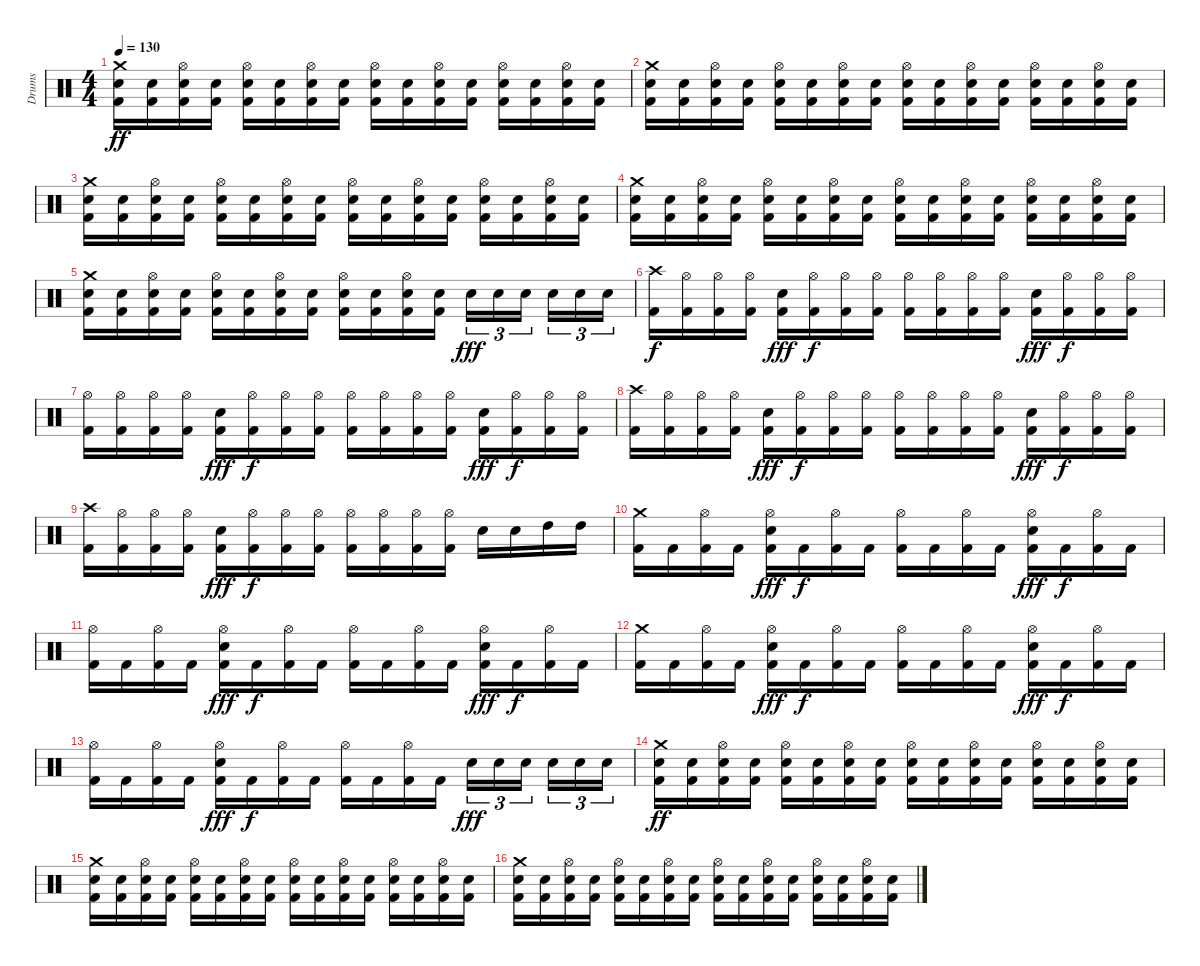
\track ("Drums" "Drums") {instrument percussion}
\staff {score}
\articulation defaults
\ts (4 4)
\tempo 130
\clef neutral
\ks c
("Kick (hit) 2" "Snare (hit) 2" "Crash medium (hit)").16{dy ff} ("Kick (hit) 2" "Snare (hit) 2").16 ("Kick (hit) 2" "Snare (hit) 2" "Hi-Hat (open)").16 ("Kick (hit) 2" "Snare (hit) 2").16 ("Kick (hit) 2" "Snare (hit) 2" "Hi-Hat (open)").16 ("Kick (hit) 2" "Snare (hit) 2").16 ("Kick (hit) 2" "Snare (hit) 2" "Hi-Hat (open)").16 ("Kick (hit) 2" "Snare (hit) 2").16 ("Kick (hit) 2" "Snare (hit) 2" "Hi-Hat (open)").16 ("Kick (hit) 2" "Snare (hit) 2").16 ("Kick (hit) 2" "Snare (hit) 2" "Hi-Hat (open)").16 ("Kick (hit) 2" "Snare (hit) 2").16 ("Kick (hit) 2" "Snare (hit) 2" "Hi-Hat (open)").16 ("Kick (hit) 2" "Snare (hit) 2").16 ("Kick (hit) 2" "Snare (hit) 2" "Hi-Hat (open)").16 ("Kick (hit) 2" "Snare (hit) 2").16 |
("Kick (hit) 2" "Snare (hit) 2" "Crash medium (hit)").16 ("Kick (hit) 2" "Snare (hit) 2").16 ("Kick (hit) 2" "Snare (hit) 2" "Hi-Hat (open)").16 ("Kick (hit) 2" "Snare (hit) 2").16 ("Kick (hit) 2" "Snare (hit) 2" "Hi-Hat (open)").16 ("Kick (hit) 2" "Snare (hit) 2").16 ("Kick (hit) 2" "Snare (hit) 2" "Hi-Hat (open)").16 ("Kick (hit) 2" "Snare (hit) 2").16 ("Kick (hit) 2" "Snare (hit) 2" "Hi-Hat (open)").16 ("Kick (hit) 2" "Snare (hit) 2").16 ("Kick (hit) 2" "Snare (hit) 2" "Hi-Hat (open)").16 ("Kick (hit) 2" "Snare (hit) 2").16 ("Kick (hit) 2" "Snare (hit) 2" "Hi-Hat (open)").16 ("Kick (hit) 2" "Snare (hit) 2").16 ("Kick (hit) 2" "Snare (hit) 2" "Hi-Hat (open)").16 ("Kick (hit) 2" "Snare (hit) 2").16 |
("Kick (hit) 2" "Snare (hit) 2" "Crash medium (hit)").16 ("Kick (hit) 2" "Snare (hit) 2").16 ("Kick (hit) 2" "Snare (hit) 2" "Hi-Hat (open)").16 ("Kick (hit) 2" "Snare (hit) 2").16 ("Kick (hit) 2" "Snare (hit) 2" "Hi-Hat (open)").16 ("Kick (hit) 2" "Snare (hit) 2").16 ("Kick (hit) 2" "Snare (hit) 2" "Hi-Hat (open)").16 ("Kick (hit) 2" "Snare (hit) 2").16 ("Kick (hit) 2" "Snare (hit) 2" "Hi-Hat (open)").16 ("Kick (hit) 2" "Snare (hit) 2").16 ("Kick (hit) 2" "Snare (hit) 2" "Hi-Hat (open)").16 ("Kick (hit) 2" "Snare (hit) 2").16 ("Kick (hit) 2" "Snare (hit) 2" "Hi-Hat (open)").16 ("Kick (hit) 2" "Snare (hit) 2").16 ("Kick (hit) 2" "Snare (hit) 2" "Hi-Hat (open)").16 ("Kick (hit) 2" "Snare (hit) 2").16 |
("Kick (hit) 2" "Snare (hit) 2" "Crash medium (hit)").16 ("Kick (hit) 2" "Snare (hit) 2").16 ("Kick (hit) 2" "Snare (hit) 2" "Hi-Hat (open)").16 ("Kick (hit) 2" "Snare (hit) 2").16 ("Kick (hit) 2" "Snare (hit) 2" "Hi-Hat (open)").16 ("Kick (hit) 2" "Snare (hit) 2").16 ("Kick (hit) 2" "Snare (hit) 2" "Hi-Hat (open)").16 ("Kick (hit) 2" "Snare (hit) 2").16 ("Kick (hit) 2" "Snare (hit) 2" "Hi-Hat (open)").16 ("Kick (hit) 2" "Snare (hit) 2").16 ("Kick (hit) 2" "Snare (hit) 2" "Hi-Hat (open)").16 ("Kick (hit) 2" "Snare (hit) 2").16 ("Kick (hit) 2" "Snare (hit) 2" "Hi-Hat (open)").16 ("Kick (hit) 2" "Snare (hit) 2").16 ("Kick (hit) 2" "Snare (hit) 2" "Hi-Hat (open)").16 ("Kick (hit) 2" "Snare (hit) 2").16 |
("Kick (hit) 2" "Snare (hit) 2" "Crash medium (hit)").16 ("Kick (hit) 2" "Snare (hit) 2").16 ("Kick (hit) 2" "Snare (hit) 2" "Hi-Hat (open)").16 ("Kick (hit) 2" "Snare (hit) 2").16 ("Kick (hit) 2" "Snare (hit) 2" "Hi-Hat (open)").16 ("Kick (hit) 2" "Snare (hit) 2").16 ("Kick (hit) 2" "Snare (hit) 2" "Hi-Hat (open)").16 ("Kick (hit) 2" "Snare (hit) 2").16 ("Kick (hit) 2" "Snare (hit) 2" "Hi-Hat (open)").16 ("Kick (hit) 2" "Snare (hit) 2").16 ("Kick (hit) 2" "Snare (hit) 2" "Hi-Hat (open)").16 ("Kick (hit) 2" "Snare (hit) 2").16 "Electric Snare (hit)".16{tu (3 2) dy fff} "Electric Snare (hit)".16{tu (3 2)} "Electric Snare (hit)".16{tu (3 2) beam splitsecondary} "Electric Snare (hit)".16{tu (3 2)} "Electric Snare (hit)".16{tu (3 2)} "Electric Snare (hit)".16{tu (3 2)} |
("Kick (hit) 2" "Crash high (hit)").16{dy f} ("Kick (hit) 2" "Hi-Hat (open)").16 ("Kick (hit) 2" "Hi-Hat (open)").16 ("Kick (hit) 2" "Hi-Hat (open)").16 ("Kick (hit) 2" "Snare (hit) 2").16{dy fff} ("Kick (hit) 2" "Hi-Hat (open)").16{dy f} ("Kick (hit) 2" "Hi-Hat (open)").16 ("Kick (hit) 2" "Hi-Hat (open)").16 ("Kick (hit) 2" "Hi-Hat (open)").16 ("Kick (hit) 2" "Hi-Hat (open)").16 ("Kick (hit) 2" "Hi-Hat (open)").16 ("Kick (hit) 2" "Hi-Hat (open)").16 ("Kick (hit) 2" "Snare (hit) 2").16{dy fff} ("Kick (hit) 2" "Hi-Hat (open)").16{dy f} ("Kick (hit) 2" "Hi-Hat (open)").16 ("Kick (hit) 2" "Hi-Hat (open)").16 |
("Kick (hit) 2" "Hi-Hat (open)").16 ("Kick (hit) 2" "Hi-Hat (open)").16 ("Kick (hit) 2" "Hi-Hat (open)").16 ("Kick (hit) 2" "Hi-Hat (open)").16 ("Kick (hit) 2" "Snare (hit) 2").16{dy fff} ("Kick (hit) 2" "Hi-Hat (open)").16{dy f} ("Kick (hit) 2" "Hi-Hat (open)").16 ("Kick (hit) 2" "Hi-Hat (open)").16 ("Kick (hit) 2" "Hi-Hat (open)").16 ("Kick (hit) 2" "Hi-Hat (open)").16 ("Kick (hit) 2" "Hi-Hat (open)").16 ("Kick (hit) 2" "Hi-Hat (open)").16 ("Kick (hit) 2" "Snare (hit) 2").16{dy fff} ("Kick (hit) 2" "Hi-Hat (open)").16{dy f} ("Kick (hit) 2" "Hi-Hat (open)").16 ("Kick (hit) 2" "Hi-Hat (open)").16 |
("Kick (hit) 2" "Crash high (hit)").16 ("Kick (hit) 2" "Hi-Hat (open)").16 ("Kick (hit) 2" "Hi-Hat (open)").16 ("Kick (hit) 2" "Hi-Hat (open)").16 ("Kick (hit) 2" "Snare (hit) 2").16{dy fff} ("Kick (hit) 2" "Hi-Hat (open)").16{dy f} ("Kick (hit) 2" "Hi-Hat (open)").16 ("Kick (hit) 2" "Hi-Hat (open)").16 ("Kick (hit) 2" "Hi-Hat (open)").16 ("Kick (hit) 2" "Hi-Hat (open)").16 ("Kick (hit) 2" "Hi-Hat (open)").16 ("Kick (hit) 2" "Hi-Hat (open)").16 ("Kick (hit) 2" "Snare (hit) 2").16{dy fff} ("Kick (hit) 2" "Hi-Hat (open)").16{dy f} ("Kick (hit) 2" "Hi-Hat (open)").16 ("Kick (hit) 2" "Hi-Hat (open)").16 |
("Kick (hit) 2" "Crash high (hit)").16 ("Kick (hit) 2" "Hi-Hat (open)").16 ("Kick (hit) 2" "Hi-Hat (open)").16 ("Kick (hit) 2" "Hi-Hat (open)").16 ("Kick (hit) 2" "Snare (hit) 2").16{dy fff} ("Kick (hit) 2" "Hi-Hat (open)").16{dy f} ("Kick (hit) 2" "Hi-Hat (open)").16 ("Kick (hit) 2" "Hi-Hat (open)").16 ("Kick (hit) 2" "Hi-Hat (open)").16 ("Kick (hit) 2" "Hi-Hat (open)").16 ("Kick (hit) 2" "Hi-Hat (open)").16 ("Kick (hit) 2" "Hi-Hat (open)").16 "Snare (hit) 2".16 "Snare (hit) 2".16 "High Tom (hit)".16 "High Tom (hit)".16 |
("Kick (hit) 2" "Crash medium (hit)").16 "Kick (hit) 2".16 ("Kick (hit) 2" "Hi-Hat (open)").16 "Kick (hit) 2".16 ("Kick (hit) 2" "Hi-Hat (open)" "Snare (hit) 2").16{dy fff} "Kick (hit) 2".16{dy f} ("Kick (hit) 2" "Hi-Hat (open)").16 "Kick (hit) 2".16 ("Kick (hit) 2" "Hi-Hat (open)").16 "Kick (hit) 2".16 ("Kick (hit) 2" "Hi-Hat (open)").16 "Kick (hit) 2".16 ("Kick (hit) 2" "Hi-Hat (open)" "Snare (hit) 2").16{dy fff} "Kick (hit) 2".16{dy f} ("Kick (hit) 2" "Hi-Hat (open)").16 "Kick (hit) 2".16 |
("Kick (hit) 2" "Hi-Hat (open)").16 "Kick (hit) 2".16 ("Kick (hit) 2" "Hi-Hat (open)").16 "Kick (hit) 2".16 ("Kick (hit) 2" "Hi-Hat (open)" "Snare (hit) 2").16{dy fff} "Kick (hit) 2".16{dy f} ("Kick (hit) 2" "Hi-Hat (open)").16 "Kick (hit) 2".16 ("Kick (hit) 2" "Hi-Hat (open)").16 "Kick (hit) 2".16 ("Kick (hit) 2" "Hi-Hat (open)").16 "Kick (hit) 2".16 ("Kick (hit) 2" "Hi-Hat (open)" "Snare (hit) 2").16{dy fff} "Kick (hit) 2".16{dy f} ("Kick (hit) 2" "Hi-Hat (open)").16 "Kick (hit) 2".16 |
("Kick (hit) 2" "Crash medium (hit)").16 "Kick (hit) 2".16 ("Kick (hit) 2" "Hi-Hat (open)").16 "Kick (hit) 2".16 ("Kick (hit) 2" "Hi-Hat (open)" "Snare (hit) 2").16{dy fff} "Kick (hit) 2".16{dy f} ("Kick (hit) 2" "Hi-Hat (open)").16 "Kick (hit) 2".16 ("Kick (hit) 2" "Hi-Hat (open)").16 "Kick (hit) 2".16 ("Kick (hit) 2" "Hi-Hat (open)").16 "Kick (hit) 2".16 ("Kick (hit) 2" "Hi-Hat (open)" "Snare (hit) 2").16{dy fff} "Kick (hit) 2".16{dy f} ("Kick (hit) 2" "Hi-Hat (open)").16 "Kick (hit) 2".16 |
("Kick (hit) 2" "Hi-Hat (open)").16 "Kick (hit) 2".16 ("Kick (hit) 2" "Hi-Hat (open)").16 "Kick (hit) 2".16 ("Kick (hit) 2" "Hi-Hat (open)" "Snare (hit) 2").16{dy fff} "Kick (hit) 2".16{dy f} ("Kick (hit) 2" "Hi-Hat (open)").16 "Kick (hit) 2".16 ("Kick (hit) 2" "Hi-Hat (open)").16 "Kick (hit) 2".16 ("Kick (hit) 2" "Hi-Hat (open)").16 "Kick (hit) 2".16 "Electric Snare (hit)".16{tu (3 2) dy fff} "Electric Snare (hit)".16{tu (3 2)} "Electric Snare (hit)".16{tu (3 2) beam splitsecondary} "Electric Snare (hit)".16{tu (3 2)} "Electric Snare (hit)".16{tu (3 2)} "Electric Snare (hit)".16{tu (3 2)} |
("Kick (hit) 2" "Snare (hit) 2" "Crash medium (hit)").16{dy ff} ("Kick (hit) 2" "Snare (hit) 2").16 ("Kick (hit) 2" "Snare (hit) 2" "Hi-Hat (open)").16 ("Kick (hit) 2" "Snare (hit) 2").16 ("Kick (hit) 2" "Snare (hit) 2" "Hi-Hat (open)").16 ("Kick (hit) 2" "Snare (hit) 2").16 ("Kick (hit) 2" "Snare (hit) 2" "Hi-Hat (open)").16 ("Kick (hit) 2" "Snare (hit) 2").16 ("Kick (hit) 2" "Snare (hit) 2" "Hi-Hat (open)").16 ("Kick (hit) 2" "Snare (hit) 2").16 ("Kick (hit) 2" "Snare (hit) 2" "Hi-Hat (open)").16 ("Kick (hit) 2" "Snare (hit) 2").16 ("Kick (hit) 2" "Snare (hit) 2" "Hi-Hat (open)").16 ("Kick (hit) 2" "Snare (hit) 2").16 ("Kick (hit) 2" "Snare (hit) 2" "Hi-Hat (open)").16 ("Kick (hit) 2" "Snare (hit) 2").16 |
("Kick (hit) 2" "Snare (hit) 2" "Crash medium (hit)").16 ("Kick (hit) 2" "Snare (hit) 2").16 ("Kick (hit) 2" "Snare (hit) 2" "Hi-Hat (open)").16 ("Kick (hit) 2" "Snare (hit) 2").16 ("Kick (hit) 2" "Snare (hit) 2" "Hi-Hat (open)").16 ("Kick (hit) 2" "Snare (hit) 2").16 ("Kick (hit) 2" "Snare (hit) 2" "Hi-Hat (open)").16 ("Kick (hit) 2" "Snare (hit) 2").16 ("Kick (hit) 2" "Snare (hit) 2" "Hi-Hat (open)").16 ("Kick (hit) 2" "Snare (hit) 2").16 ("Kick (hit) 2" "Snare (hit) 2" "Hi-Hat (open)").16 ("Kick (hit) 2" "Snare (hit) 2").16 ("Kick (hit) 2" "Snare (hit) 2" "Hi-Hat (open)").16 ("Kick (hit) 2" "Snare (hit) 2").16 ("Kick (hit) 2" "Snare (hit) 2" "Hi-Hat (open)").16 ("Kick (hit) 2" "Snare (hit) 2").16 |
("Kick (hit) 2" "Snare (hit) 2" "Crash medium (hit)").16 ("Kick (hit) 2" "Snare (hit) 2").16 ("Kick (hit) 2" "Snare (hit) 2" "Hi-Hat (open)").16 ("Kick (hit) 2" "Snare (hit) 2").16 ("Kick (hit) 2" "Snare (hit) 2" "Hi-Hat (open)").16 ("Kick (hit) 2" "Snare (hit) 2").16 ("Kick (hit) 2" "Snare (hit) 2" "Hi-Hat (open)").16 ("Kick (hit) 2" "Snare (hit) 2").16 ("Kick (hit) 2" "Snare (hit) 2" "Hi-Hat (open)").16 ("Kick (hit) 2" "Snare (hit) 2").16 ("Kick (hit) 2" "Snare (hit) 2" "Hi-Hat (open)").16 ("Kick (hit) 2" "Snare (hit) 2").16 ("Kick (hit) 2" "Snare (hit) 2" "Hi-Hat (open)").16 ("Kick (hit) 2" "Snare (hit) 2").16 ("Kick (hit) 2" "Snare (hit) 2" "Hi-Hat (open)").16 ("Kick (hit) 2" "Snare (hit) 2").16
